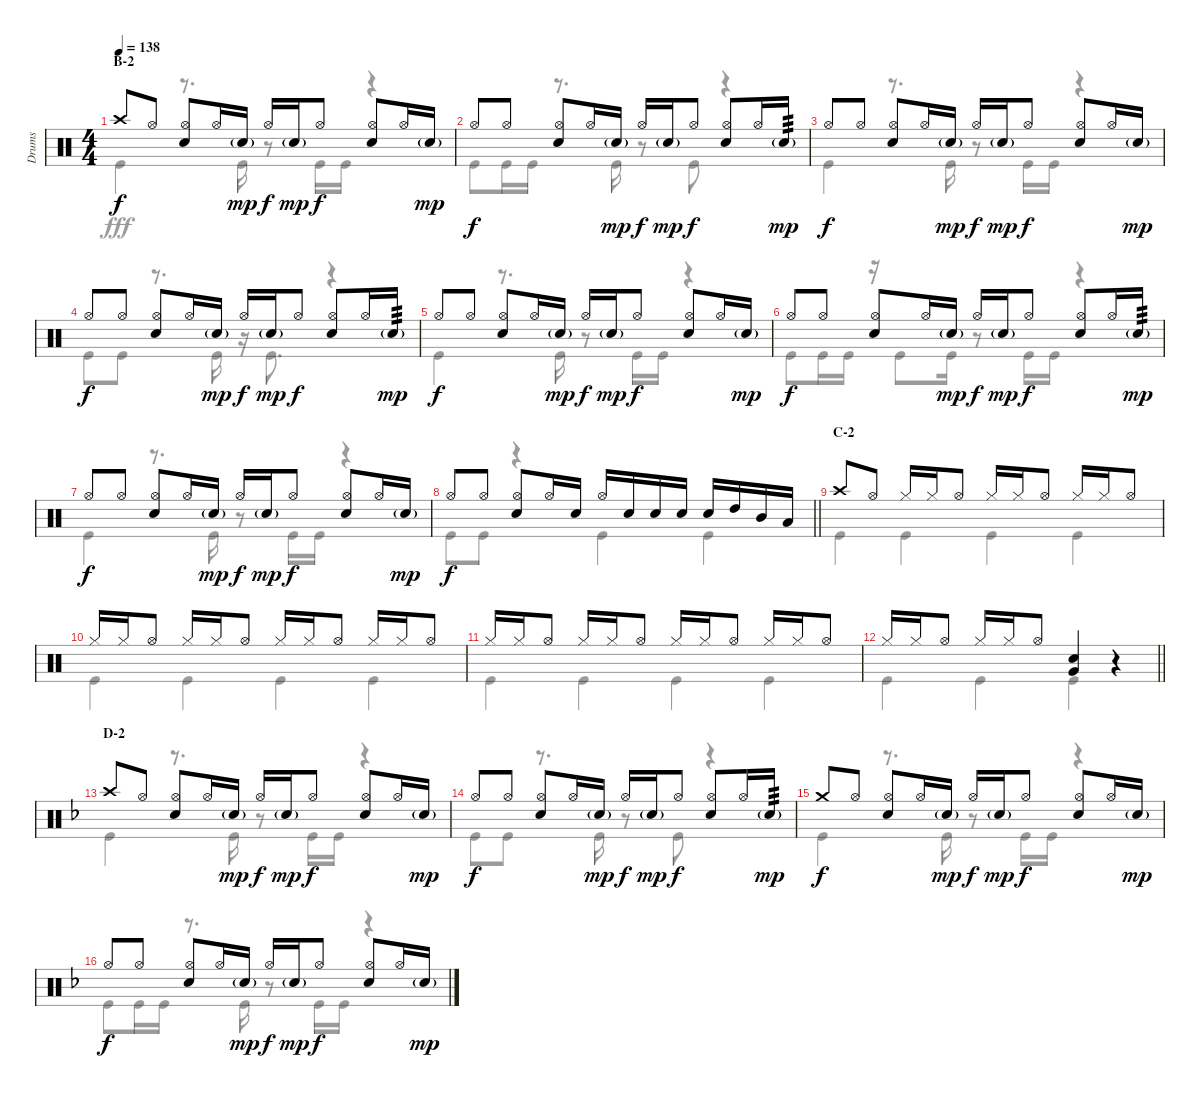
\track ("Drums" "Drums") {instrument percussion}
\staff {score}
\articulation defaults
\voice
\ts (4 4)
\section ("" "B-2")
\tempo 138
\clef neutral
\ks c "Crash high (hit)".8{dy f} "Hi-Hat (open)".8
("Hi-Hat (open)" "Snare (hit) 2").8 "Hi-Hat (open)".16 "Snare (hit) 2"{g}.16{dy mp} "Hi-Hat (open)".16{dy f} "Snare (hit) 2"{g}.16{dy mp} "Hi-Hat (open)".8{dy f} ("Hi-Hat (open)" "Snare (hit) 2").8 "Hi-Hat (open)".16 "Snare (hit) 2"{g}.16{dy mp} |
"Hi-Hat (open)".8{dy f} "Hi-Hat (open)".8 ("Hi-Hat (open)" "Snare (hit) 2").8 "Hi-Hat (open)".16 "Snare (hit) 2"{g}.16{dy mp} "Hi-Hat (open)".16{dy f} "Snare (hit) 2"{g}.16{dy mp} "Hi-Hat (open)".8{dy f} ("Hi-Hat (open)" "Snare (hit) 2").8 "Hi-Hat (open)".16 "Snare (hit) 2"{g}.16{tp 3 dy mp} |
"Hi-Hat (open)".8{dy f} "Hi-Hat (open)".8 ("Hi-Hat (open)" "Snare (hit) 2").8 "Hi-Hat (open)".16 "Snare (hit) 2"{g}.16{dy mp} "Hi-Hat (open)".16{dy f} "Snare (hit) 2"{g}.16{dy mp} "Hi-Hat (open)".8{dy f} ("Hi-Hat (open)" "Snare (hit) 2").8 "Hi-Hat (open)".16 "Snare (hit) 2"{g}.16{dy mp} |
"Hi-Hat (open)".8{dy f} "Hi-Hat (open)".8 ("Hi-Hat (open)" "Snare (hit) 2").8 "Hi-Hat (open)".16 "Snare (hit) 2"{g}.16{dy mp} "Hi-Hat (open)".16{dy f} "Snare (hit) 2"{g}.16{dy mp} "Hi-Hat (open)".8{dy f} ("Hi-Hat (open)" "Snare (hit) 2").8 "Hi-Hat (open)".16 "Snare (hit) 2"{g}.16{tp 3 dy mp} |
"Hi-Hat (open)".8{dy f} "Hi-Hat (open)".8 ("Hi-Hat (open)" "Snare (hit) 2").8 "Hi-Hat (open)".16 "Snare (hit) 2"{g}.16{dy mp} "Hi-Hat (open)".16{dy f} "Snare (hit) 2"{g}.16{dy mp} "Hi-Hat (open)".8{dy f} ("Hi-Hat (open)" "Snare (hit) 2").8 "Hi-Hat (open)".16 "Snare (hit) 2"{g}.16{dy mp} |
"Hi-Hat (open)".8{dy f} "Hi-Hat (open)".8 ("Hi-Hat (open)" "Snare (hit) 2").8 "Hi-Hat (open)".16 "Snare (hit) 2"{g}.16{dy mp} "Hi-Hat (open)".16{dy f} "Snare (hit) 2"{g}.16{dy mp} "Hi-Hat (open)".8{dy f} ("Hi-Hat (open)" "Snare (hit) 2").8 "Hi-Hat (open)".16 "Snare (hit) 2"{g}.16{tp 3 dy mp} |
"Hi-Hat (open)".8{dy f} "Hi-Hat (open)".8 ("Hi-Hat (open)" "Snare (hit) 2").8 "Hi-Hat (open)".16 "Snare (hit) 2"{g}.16{dy mp} "Hi-Hat (open)".16{dy f} "Snare (hit) 2"{g}.16{dy mp} "Hi-Hat (open)".8{dy f} ("Hi-Hat (open)" "Snare (hit) 2").8 "Hi-Hat (open)".16 "Snare (hit) 2"{g}.16{dy mp} |
\barLineRight lightlight "Hi-Hat (open)".8{dy f} "Hi-Hat (open)".8
("Hi-Hat (open)" "Snare (hit) 2").8 "Hi-Hat (open)".16 "Snare (hit) 2".16 "Hi-Hat (open)".16 "Snare (hit) 2".16 "Snare (hit) 2".16 "Snare (hit) 2".16 "Snare (hit) 2".16 "High Tom (hit)".16 "Mid Tom (hit)".16 "Low Tom (hit)".16 |
\section ("" "C-2")
"Crash high (hit)".8 "Hi-Hat (open)".8 "Hi-Hat (closed)".16 "Hi-Hat (closed)".16 "Hi-Hat (open)".8 "Hi-Hat (closed)".16 "Hi-Hat (closed)".16 "Hi-Hat (open)".8 "Hi-Hat (closed)".16 "Hi-Hat (closed)".16 "Hi-Hat (open)".8 |
"Hi-Hat (closed)".16 "Hi-Hat (closed)".16 "Hi-Hat (open)".8 "Hi-Hat (closed)".16 "Hi-Hat (closed)".16 "Hi-Hat (open)".8 "Hi-Hat (closed)".16 "Hi-Hat (closed)".16 "Hi-Hat (open)".8 "Hi-Hat (closed)".16 "Hi-Hat (closed)".16 "Hi-Hat (open)".8 |
"Hi-Hat (closed)".16 "Hi-Hat (closed)".16 "Hi-Hat (open)".8 "Hi-Hat (closed)".16 "Hi-Hat (closed)".16 "Hi-Hat (open)".8 "Hi-Hat (closed)".16 "Hi-Hat (closed)".16 "Hi-Hat (open)".8 "Hi-Hat (closed)".16 "Hi-Hat (closed)".16 "Hi-Hat (open)".8 |
\barLineRight lightlight "Hi-Hat (closed)".16 "Hi-Hat (closed)".16 "Hi-Hat (open)".8 "Hi-Hat (closed)".16 "Hi-Hat (closed)".16 "Hi-Hat (open)".8
("Snare (hit) 2" "Very Low Tom (hit)").4 r.4 |
\section ("" "D-2")
\ks f "Crash high (hit)".8 "Hi-Hat (open)".8
("Hi-Hat (open)" "Snare (hit) 2").8 "Hi-Hat (open)".16 "Snare (hit) 2"{g}.16{dy mp} "Hi-Hat (open)".16{dy f} "Snare (hit) 2"{g}.16{dy mp} "Hi-Hat (open)".8{dy f} ("Hi-Hat (open)" "Snare (hit) 2").8 "Hi-Hat (open)".16 "Snare (hit) 2"{g}.16{dy mp} |
"Hi-Hat (open)".8{dy f} "Hi-Hat (open)".8 ("Hi-Hat (open)" "Snare (hit) 2").8 "Hi-Hat (open)".16 "Snare (hit) 2"{g}.16{dy mp} "Hi-Hat (open)".16{dy f} "Snare (hit) 2"{g}.16{dy mp} "Hi-Hat (open)".8{dy f} ("Hi-Hat (open)" "Snare (hit) 2").8 "Hi-Hat (open)".16 "Snare (hit) 2"{g}.16{tp 3 dy mp} |
"Crash medium (hit)".8{dy f} "Hi-Hat (open)".8 ("Hi-Hat (open)" "Snare (hit) 2").8 "Hi-Hat (open)".16 "Snare (hit) 2"{g}.16{dy mp} "Hi-Hat (open)".16{dy f} "Snare (hit) 2"{g}.16{dy mp} "Hi-Hat (open)".8{dy f} ("Hi-Hat (open)" "Snare (hit) 2").8 "Hi-Hat (open)".16 "Snare (hit) 2"{g}.16{dy mp} |
"Hi-Hat (open)".8{dy f} "Hi-Hat (open)".8 ("Hi-Hat (open)" "Snare (hit) 2").8 "Hi-Hat (open)".16 "Snare (hit) 2"{g}.16{dy mp} "Hi-Hat (open)".16{dy f} "Snare (hit) 2"{g}.16{dy mp} "Hi-Hat (open)".8{dy f} ("Hi-Hat (open)" "Snare (hit) 2").8 "Hi-Hat (open)".16 "Snare (hit) 2"{g}.16{dy mp}
\voice
\clef neutral
\ottava regular
\simile none
\ks c "Kick (hit)".4{dy fff}
r.8{d} "Kick (hit)".16 r.8 "Kick (hit)".16 "Kick (hit)".16 r.4 |
"Kick (hit)".8 "Kick (hit)".16 "Kick (hit)".16 r.8{d} "Kick (hit)".16 r.8 "Kick (hit)".8 r.4 |
"Kick (hit)".4 r.8{d} "Kick (hit)".16 r.8 "Kick (hit)".16 "Kick (hit)".16 r.4 |
"Kick (hit)".8 "Kick (hit)".8 r.8{d} "Kick (hit)".16 r.16 "Kick (hit)".8{d} r.4 |
"Kick (hit)".4 r.8{d} "Kick (hit)".16 r.8 "Kick (hit)".16 "Kick (hit)".16 r.4 |
"Kick (hit)".8 "Kick (hit)".16 "Kick (hit)".16 r.16 "Kick (hit)".8 "Kick (hit)".16 r.8 "Kick (hit)".16 "Kick (hit)".16 r.4 |
"Kick (hit)".4 r.8{d} "Kick (hit)".16 r.8 "Kick (hit)".16 "Kick (hit)".16 r.4 |
\barLineRight lightlight "Kick (hit)".8 "Kick (hit)".8
r.4 "Kick (hit)".4 "Kick (hit)".4 |
"Kick (hit)".4 "Kick (hit)".4 "Kick (hit)".4 "Kick (hit)".4 |
"Kick (hit)".4 "Kick (hit)".4 "Kick (hit)".4 "Kick (hit)".4 |
"Kick (hit)".4 "Kick (hit)".4 "Kick (hit)".4 "Kick (hit)".4 |
\barLineRight lightlight "Kick (hit)".4 "Kick (hit)".4 "Kick (hit)".4
r.4 |
\ks f "Kick (hit)".4
r.8{d} "Kick (hit)".16 r.8 "Kick (hit)".16 "Kick (hit)".16 r.4 |
"Kick (hit)".8 "Kick (hit)".8 r.8{d} "Kick (hit)".16 r.8 "Kick (hit)".8 r.4 |
"Kick (hit)".4 r.8{d} "Kick (hit)".16 r.8 "Kick (hit)".16 "Kick (hit)".16 r.4 |
"Kick (hit)".8 "Kick (hit)".16 "Kick (hit)".16 r.8{d} "Kick (hit)".16 r.8 "Kick (hit)".16 "Kick (hit)".16 r.4
